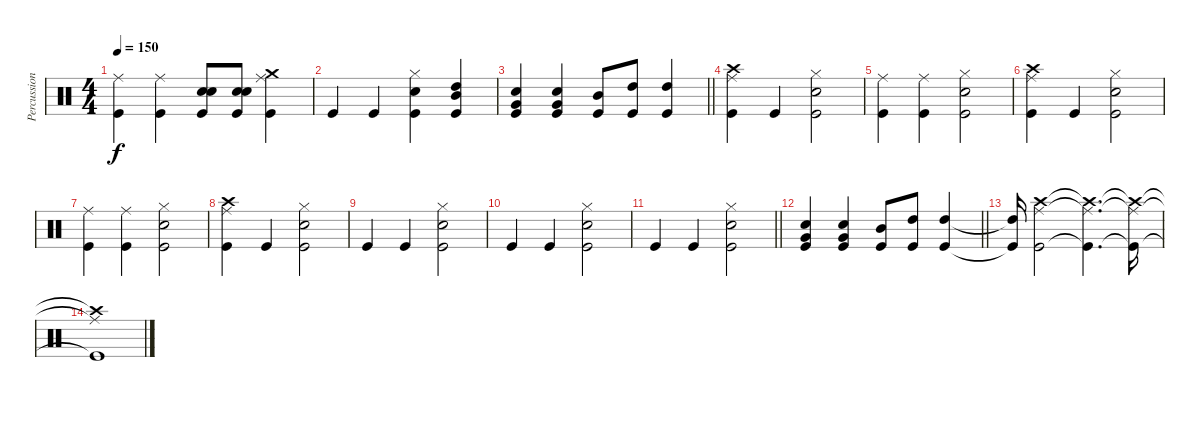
\track ("Percussion" "Percussion") {instrument percussion}
\staff {score}
\articulation defaults
\ts (4 4)
\tempo 150
\clef neutral
\ks c
("Ride (middle)" "Kick (hit)").4{dy f} ("Ride (middle)" "Kick (hit)").4 ("Electric Snare (hit)" "Electric Snare (hit)" "Kick (hit)").8 ("Electric Snare (hit)" "Electric Snare (hit)" "Kick (hit)").8 ("Crash medium (hit)" "Ride (middle)" "Kick (hit)").4 |
"Kick (hit)".4 "Kick (hit)".4 ("Hi-Hat (closed)" "Electric Snare (hit)" "Kick (hit)").4 ("Mid Tom (hit)" "High Tom (hit)" "Kick (hit)").4 |
\barLineRight lightlight
("Electric Snare (hit)" "Very Low Tom (hit)" "Kick (hit)").4 ("Electric Snare (hit)" "Very Low Tom (hit)" "Kick (hit)").4 ("Mid Tom (hit)" "Kick (hit)").8 ("High Tom (hit)" "Kick (hit)").8 ("High Tom (hit)" "Kick (hit)").4 |
("Crash high (hit)" "Ride (middle)" "Kick (hit)").4 "Kick (hit)".4 ("Hi-Hat (closed)" "Electric Snare (hit)" "Kick (hit)").2 |
("Ride (middle)" "Kick (hit)").4 ("Ride (middle)" "Kick (hit)").4 ("Hi-Hat (closed)" "Electric Snare (hit)" "Kick (hit)").2 |
("Crash high (hit)" "Ride (middle)" "Kick (hit)").4 "Kick (hit)".4 ("Hi-Hat (closed)" "Electric Snare (hit)" "Kick (hit)").2 |
("Ride (middle)" "Kick (hit)").4 ("Ride (middle)" "Kick (hit)").4 ("Hi-Hat (closed)" "Electric Snare (hit)" "Kick (hit)").2 |
("Crash high (hit)" "Ride (middle)" "Kick (hit)").4 "Kick (hit)".4 ("Hi-Hat (closed)" "Electric Snare (hit)" "Kick (hit)").2 |
"Kick (hit)".4 "Kick (hit)".4 ("Hi-Hat (closed)" "Electric Snare (hit)" "Kick (hit)").2 |
"Kick (hit)".4 "Kick (hit)".4 ("Hi-Hat (closed)" "Electric Snare (hit)" "Kick (hit)").2 |
\barLineRight lightlight "Kick (hit)".4 "Kick (hit)".4
("Hi-Hat (closed)" "Electric Snare (hit)" "Kick (hit)").2 |
\barLineRight lightlight
("Electric Snare (hit)" "Very Low Tom (hit)" "Kick (hit)").4 ("Electric Snare (hit)" "Very Low Tom (hit)" "Kick (hit)").4 ("Mid Tom (hit)" "Kick (hit)").8 ("High Tom (hit)" "Kick (hit)").8 ("High Tom (hit)" "Kick (hit)").4 |
("High Tom (hit)"{t} "Kick (hit)"{t}).16 ("Ride (middle)" "Crash high (hit)" "Kick (hit)").2 ("Ride (middle)"{t} "Crash high (hit)"{t} "Kick (hit)"{t}).4{d} ("Ride (middle)"{t} "Crash high (hit)"{t} "Kick (hit)"{t}).16 |
("Ride (middle)"{t} "Crash high (hit)"{t} "Kick (hit)"{t}).1
